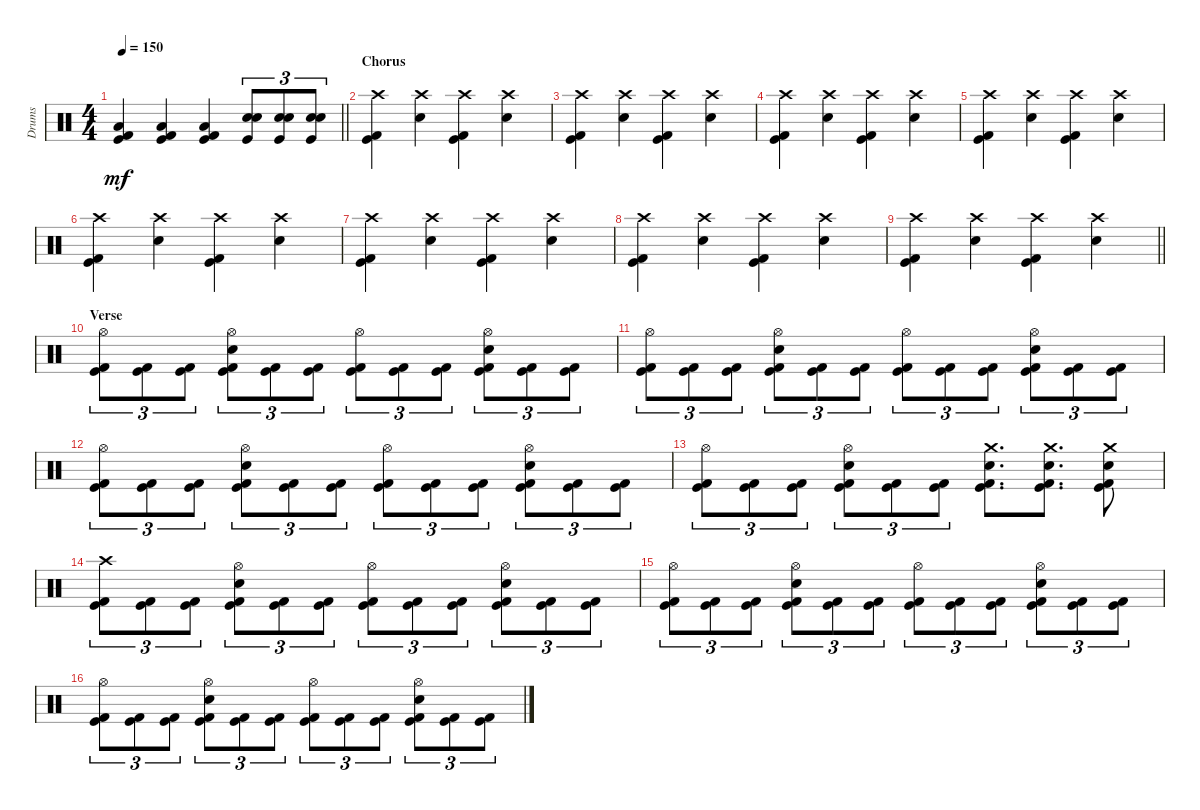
\track ("Drums" "Drums") {instrument percussion}
\staff {score}
\articulation defaults
\ts (4 4)
\tempo 150
\clef neutral
\barLineRight lightlight
\ks c
("Low Floor Tom (hit)" "Kick (hit) 2" "Kick (hit)").4{dy mf} ("Low Floor Tom (hit)" "Kick (hit) 2" "Kick (hit)").4 ("Low Floor Tom (hit)" "Kick (hit) 2" "Kick (hit)").4 ("Electric Snare (hit)" "Electric Snare (hit)" "Kick (hit)").8{tu (3 2)} ("Electric Snare (hit)" "Electric Snare (hit)" "Kick (hit)").8{tu (3 2)} ("Electric Snare (hit)" "Electric Snare (hit)" "Kick (hit)").8{tu (3 2)} |
\section ("" "Chorus")
("Crash high (hit)" "Kick (hit)" "Kick (hit) 2").4 ("Crash high (hit)" "Electric Snare (hit)").4 ("Crash high (hit)" "Kick (hit)" "Kick (hit) 2").4 ("Crash high (hit)" "Electric Snare (hit)").4 |
("Crash high (hit)" "Kick (hit)" "Kick (hit) 2").4 ("Crash high (hit)" "Electric Snare (hit)").4 ("Crash high (hit)" "Kick (hit)" "Kick (hit) 2").4 ("Crash high (hit)" "Electric Snare (hit)").4 |
("Crash high (hit)" "Kick (hit)" "Kick (hit) 2").4 ("Crash high (hit)" "Electric Snare (hit)").4 ("Crash high (hit)" "Kick (hit)" "Kick (hit) 2").4 ("Crash high (hit)" "Electric Snare (hit)").4 |
("Crash high (hit)" "Kick (hit)" "Kick (hit) 2").4 ("Crash high (hit)" "Electric Snare (hit)").4 ("Crash high (hit)" "Kick (hit)" "Kick (hit) 2").4 ("Crash high (hit)" "Electric Snare (hit)").4 |
("Crash high (hit)" "Kick (hit)" "Kick (hit) 2").4 ("Crash high (hit)" "Electric Snare (hit)").4 ("Crash high (hit)" "Kick (hit)" "Kick (hit) 2").4 ("Crash high (hit)" "Electric Snare (hit)").4 |
("Crash high (hit)" "Kick (hit)" "Kick (hit) 2").4 ("Crash high (hit)" "Electric Snare (hit)").4 ("Crash high (hit)" "Kick (hit)" "Kick (hit) 2").4 ("Crash high (hit)" "Electric Snare (hit)").4 |
("Crash high (hit)" "Kick (hit)" "Kick (hit) 2").4 ("Crash high (hit)" "Electric Snare (hit)").4 ("Crash high (hit)" "Kick (hit)" "Kick (hit) 2").4 ("Crash high (hit)" "Electric Snare (hit)").4 |
\barLineRight lightlight
("Crash high (hit)" "Kick (hit)" "Kick (hit) 2").4 ("Crash high (hit)" "Electric Snare (hit)").4 ("Crash high (hit)" "Kick (hit)" "Kick (hit) 2").4 ("Crash high (hit)" "Electric Snare (hit)").4 |
\section ("" "Verse")
("Hi-Hat (open)" "Kick (hit) 2" "Kick (hit)").8{tu (3 2)} ("Kick (hit) 2" "Kick (hit)").8{tu (3 2)} ("Kick (hit) 2" "Kick (hit)").8{tu (3 2)} ("Hi-Hat (open)" "Electric Snare (hit)" "Kick (hit) 2" "Kick (hit)").8{tu (3 2)} ("Kick (hit) 2" "Kick (hit)").8{tu (3 2)} ("Kick (hit) 2" "Kick (hit)").8{tu (3 2)} ("Hi-Hat (open)" "Kick (hit) 2" "Kick (hit)").8{tu (3 2)} ("Kick (hit) 2" "Kick (hit)").8{tu (3 2)} ("Kick (hit) 2" "Kick (hit)").8{tu (3 2)} ("Hi-Hat (open)" "Electric Snare (hit)" "Kick (hit) 2" "Kick (hit)").8{tu (3 2)} ("Kick (hit) 2" "Kick (hit)").8{tu (3 2)} ("Kick (hit) 2" "Kick (hit)").8{tu (3 2)} |
("Hi-Hat (open)" "Kick (hit) 2" "Kick (hit)").8{tu (3 2)} ("Kick (hit) 2" "Kick (hit)").8{tu (3 2)} ("Kick (hit) 2" "Kick (hit)").8{tu (3 2)} ("Hi-Hat (open)" "Electric Snare (hit)" "Kick (hit) 2" "Kick (hit)").8{tu (3 2)} ("Kick (hit) 2" "Kick (hit)").8{tu (3 2)} ("Kick (hit) 2" "Kick (hit)").8{tu (3 2)} ("Hi-Hat (open)" "Kick (hit) 2" "Kick (hit)").8{tu (3 2)} ("Kick (hit) 2" "Kick (hit)").8{tu (3 2)} ("Kick (hit) 2" "Kick (hit)").8{tu (3 2)} ("Hi-Hat (open)" "Electric Snare (hit)" "Kick (hit) 2" "Kick (hit)").8{tu (3 2)} ("Kick (hit) 2" "Kick (hit)").8{tu (3 2)} ("Kick (hit) 2" "Kick (hit)").8{tu (3 2)} |
("Hi-Hat (open)" "Kick (hit) 2" "Kick (hit)").8{tu (3 2)} ("Kick (hit) 2" "Kick (hit)").8{tu (3 2)} ("Kick (hit) 2" "Kick (hit)").8{tu (3 2)} ("Hi-Hat (open)" "Electric Snare (hit)" "Kick (hit) 2" "Kick (hit)").8{tu (3 2)} ("Kick (hit) 2" "Kick (hit)").8{tu (3 2)} ("Kick (hit) 2" "Kick (hit)").8{tu (3 2)} ("Hi-Hat (open)" "Kick (hit) 2" "Kick (hit)").8{tu (3 2)} ("Kick (hit) 2" "Kick (hit)").8{tu (3 2)} ("Kick (hit) 2" "Kick (hit)").8{tu (3 2)} ("Hi-Hat (open)" "Electric Snare (hit)" "Kick (hit) 2" "Kick (hit)").8{tu (3 2)} ("Kick (hit) 2" "Kick (hit)").8{tu (3 2)} ("Kick (hit) 2" "Kick (hit)").8{tu (3 2)} |
("Hi-Hat (open)" "Kick (hit) 2" "Kick (hit)").8{tu (3 2)} ("Kick (hit) 2" "Kick (hit)").8{tu (3 2)} ("Kick (hit) 2" "Kick (hit)").8{tu (3 2)} ("Hi-Hat (open)" "Electric Snare (hit)" "Kick (hit) 2" "Kick (hit)").8{tu (3 2)} ("Kick (hit) 2" "Kick (hit)").8{tu (3 2)} ("Kick (hit) 2" "Kick (hit)").8{tu (3 2)} ("Crash medium (hit)" "Electric Snare (hit)" "Kick (hit)" "Kick (hit) 2").8{d} ("Crash medium (hit)" "Electric Snare (hit)" "Kick (hit)" "Kick (hit) 2").8{d} ("Crash medium (hit)" "Electric Snare (hit)" "Kick (hit)" "Kick (hit) 2").8 |
("Crash high (hit)" "Kick (hit) 2" "Kick (hit)").8{tu (3 2)} ("Kick (hit) 2" "Kick (hit)").8{tu (3 2)} ("Kick (hit) 2" "Kick (hit)").8{tu (3 2)} ("Hi-Hat (open)" "Electric Snare (hit)" "Kick (hit) 2" "Kick (hit)").8{tu (3 2)} ("Kick (hit) 2" "Kick (hit)").8{tu (3 2)} ("Kick (hit) 2" "Kick (hit)").8{tu (3 2)} ("Hi-Hat (open)" "Kick (hit) 2" "Kick (hit)").8{tu (3 2)} ("Kick (hit) 2" "Kick (hit)").8{tu (3 2)} ("Kick (hit) 2" "Kick (hit)").8{tu (3 2)} ("Hi-Hat (open)" "Electric Snare (hit)" "Kick (hit) 2" "Kick (hit)").8{tu (3 2)} ("Kick (hit) 2" "Kick (hit)").8{tu (3 2)} ("Kick (hit) 2" "Kick (hit)").8{tu (3 2)} |
("Hi-Hat (open)" "Kick (hit) 2" "Kick (hit)").8{tu (3 2)} ("Kick (hit) 2" "Kick (hit)").8{tu (3 2)} ("Kick (hit) 2" "Kick (hit)").8{tu (3 2)} ("Hi-Hat (open)" "Electric Snare (hit)" "Kick (hit) 2" "Kick (hit)").8{tu (3 2)} ("Kick (hit) 2" "Kick (hit)").8{tu (3 2)} ("Kick (hit) 2" "Kick (hit)").8{tu (3 2)} ("Hi-Hat (open)" "Kick (hit) 2" "Kick (hit)").8{tu (3 2)} ("Kick (hit) 2" "Kick (hit)").8{tu (3 2)} ("Kick (hit) 2" "Kick (hit)").8{tu (3 2)} ("Hi-Hat (open)" "Electric Snare (hit)" "Kick (hit) 2" "Kick (hit)").8{tu (3 2)} ("Kick (hit) 2" "Kick (hit)").8{tu (3 2)} ("Kick (hit) 2" "Kick (hit)").8{tu (3 2)} |
("Hi-Hat (open)" "Kick (hit) 2" "Kick (hit)").8{tu (3 2)} ("Kick (hit) 2" "Kick (hit)").8{tu (3 2)} ("Kick (hit) 2" "Kick (hit)").8{tu (3 2)} ("Hi-Hat (open)" "Electric Snare (hit)" "Kick (hit) 2" "Kick (hit)").8{tu (3 2)} ("Kick (hit) 2" "Kick (hit)").8{tu (3 2)} ("Kick (hit) 2" "Kick (hit)").8{tu (3 2)} ("Hi-Hat (open)" "Kick (hit) 2" "Kick (hit)").8{tu (3 2)} ("Kick (hit) 2" "Kick (hit)").8{tu (3 2)} ("Kick (hit) 2" "Kick (hit)").8{tu (3 2)} ("Hi-Hat (open)" "Electric Snare (hit)" "Kick (hit) 2" "Kick (hit)").8{tu (3 2)} ("Kick (hit) 2" "Kick (hit)").8{tu (3 2)} ("Kick (hit) 2" "Kick (hit)").8{tu (3 2)}
